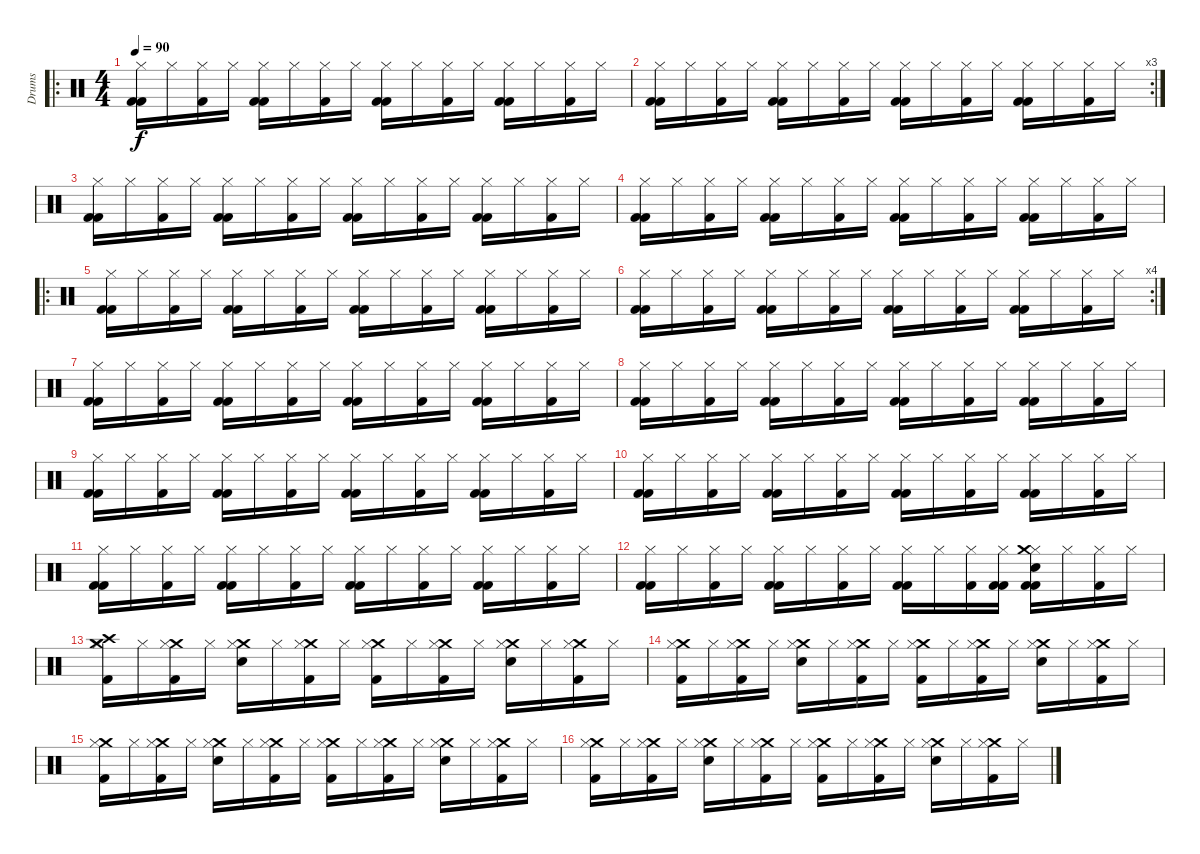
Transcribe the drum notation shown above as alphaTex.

\track ("Drums" "Drums") {instrument percussion}
\staff {score}
\articulation defaults
\ro
\ts (4 4)
\tempo 90
\clef neutral
\ks c
("Kick (hit) 2" "Kick (hit) 2" "Hi-Hat (closed)").16{dy f} "Hi-Hat (closed)".16 ("Kick (hit) 2" "Hi-Hat (closed)").16 "Hi-Hat (closed)".16 ("Kick (hit) 2" "Kick (hit) 2" "Hi-Hat (closed)").16 "Hi-Hat (closed)".16 ("Kick (hit) 2" "Hi-Hat (closed)").16 "Hi-Hat (closed)".16 ("Kick (hit) 2" "Kick (hit) 2" "Hi-Hat (closed)").16 "Hi-Hat (closed)".16 ("Kick (hit) 2" "Hi-Hat (closed)").16 "Hi-Hat (closed)".16 ("Kick (hit) 2" "Kick (hit) 2" "Hi-Hat (closed)").16 "Hi-Hat (closed)".16 ("Kick (hit) 2" "Hi-Hat (closed)").16 "Hi-Hat (closed)".16 |
\rc 3
("Kick (hit) 2" "Kick (hit) 2" "Hi-Hat (closed)").16 "Hi-Hat (closed)".16 ("Kick (hit) 2" "Hi-Hat (closed)").16 "Hi-Hat (closed)".16 ("Kick (hit) 2" "Kick (hit) 2" "Hi-Hat (closed)").16 "Hi-Hat (closed)".16 ("Kick (hit) 2" "Hi-Hat (closed)").16 "Hi-Hat (closed)".16 ("Kick (hit) 2" "Kick (hit) 2" "Hi-Hat (closed)").16 "Hi-Hat (closed)".16 ("Kick (hit) 2" "Hi-Hat (closed)").16 "Hi-Hat (closed)".16 ("Kick (hit) 2" "Kick (hit) 2" "Hi-Hat (closed)").16 "Hi-Hat (closed)".16 ("Kick (hit) 2" "Hi-Hat (closed)").16 "Hi-Hat (closed)".16 |
("Kick (hit) 2" "Kick (hit) 2" "Hi-Hat (closed)").16 "Hi-Hat (closed)".16 ("Kick (hit) 2" "Hi-Hat (closed)").16 "Hi-Hat (closed)".16 ("Kick (hit) 2" "Kick (hit) 2" "Hi-Hat (closed)").16 "Hi-Hat (closed)".16 ("Kick (hit) 2" "Hi-Hat (closed)").16 "Hi-Hat (closed)".16 ("Kick (hit) 2" "Kick (hit) 2" "Hi-Hat (closed)").16 "Hi-Hat (closed)".16 ("Kick (hit) 2" "Hi-Hat (closed)").16 "Hi-Hat (closed)".16 ("Kick (hit) 2" "Kick (hit) 2" "Hi-Hat (closed)").16 "Hi-Hat (closed)".16 ("Kick (hit) 2" "Hi-Hat (closed)").16 "Hi-Hat (closed)".16 |
("Kick (hit) 2" "Kick (hit) 2" "Hi-Hat (closed)").16 "Hi-Hat (closed)".16 ("Kick (hit) 2" "Hi-Hat (closed)").16 "Hi-Hat (closed)".16 ("Kick (hit) 2" "Kick (hit) 2" "Hi-Hat (closed)").16 "Hi-Hat (closed)".16 ("Kick (hit) 2" "Hi-Hat (closed)").16 "Hi-Hat (closed)".16 ("Kick (hit) 2" "Kick (hit) 2" "Hi-Hat (closed)").16 "Hi-Hat (closed)".16 ("Kick (hit) 2" "Hi-Hat (closed)").16 "Hi-Hat (closed)".16 ("Kick (hit) 2" "Kick (hit) 2" "Hi-Hat (closed)").16 "Hi-Hat (closed)".16 ("Kick (hit) 2" "Hi-Hat (closed)").16 "Hi-Hat (closed)".16 |
\ro
("Kick (hit) 2" "Kick (hit) 2" "Hi-Hat (closed)").16 "Hi-Hat (closed)".16 ("Kick (hit) 2" "Hi-Hat (closed)").16 "Hi-Hat (closed)".16 ("Kick (hit) 2" "Kick (hit) 2" "Hi-Hat (closed)").16 "Hi-Hat (closed)".16 ("Kick (hit) 2" "Hi-Hat (closed)").16 "Hi-Hat (closed)".16 ("Kick (hit) 2" "Kick (hit) 2" "Hi-Hat (closed)").16 "Hi-Hat (closed)".16 ("Kick (hit) 2" "Hi-Hat (closed)").16 "Hi-Hat (closed)".16 ("Kick (hit) 2" "Kick (hit) 2" "Hi-Hat (closed)").16 "Hi-Hat (closed)".16 ("Kick (hit) 2" "Hi-Hat (closed)").16 "Hi-Hat (closed)".16 |
\rc 4
("Kick (hit) 2" "Kick (hit) 2" "Hi-Hat (closed)").16 "Hi-Hat (closed)".16 ("Kick (hit) 2" "Hi-Hat (closed)").16 "Hi-Hat (closed)".16 ("Kick (hit) 2" "Kick (hit) 2" "Hi-Hat (closed)").16 "Hi-Hat (closed)".16 ("Kick (hit) 2" "Hi-Hat (closed)").16 "Hi-Hat (closed)".16 ("Kick (hit) 2" "Kick (hit) 2" "Hi-Hat (closed)").16 "Hi-Hat (closed)".16 ("Kick (hit) 2" "Hi-Hat (closed)").16 "Hi-Hat (closed)".16 ("Kick (hit) 2" "Kick (hit) 2" "Hi-Hat (closed)").16 "Hi-Hat (closed)".16 ("Kick (hit) 2" "Hi-Hat (closed)").16 "Hi-Hat (closed)".16 |
("Kick (hit) 2" "Kick (hit) 2" "Hi-Hat (closed)").16 "Hi-Hat (closed)".16 ("Kick (hit) 2" "Hi-Hat (closed)").16 "Hi-Hat (closed)".16 ("Kick (hit) 2" "Kick (hit) 2" "Hi-Hat (closed)").16 "Hi-Hat (closed)".16 ("Kick (hit) 2" "Hi-Hat (closed)").16 "Hi-Hat (closed)".16 ("Kick (hit) 2" "Kick (hit) 2" "Hi-Hat (closed)").16 "Hi-Hat (closed)".16 ("Kick (hit) 2" "Hi-Hat (closed)").16 "Hi-Hat (closed)".16 ("Kick (hit) 2" "Kick (hit) 2" "Hi-Hat (closed)").16 "Hi-Hat (closed)".16 ("Kick (hit) 2" "Hi-Hat (closed)").16 "Hi-Hat (closed)".16 |
("Kick (hit) 2" "Kick (hit) 2" "Hi-Hat (closed)").16 "Hi-Hat (closed)".16 ("Kick (hit) 2" "Hi-Hat (closed)").16 "Hi-Hat (closed)".16 ("Kick (hit) 2" "Kick (hit) 2" "Hi-Hat (closed)").16 "Hi-Hat (closed)".16 ("Kick (hit) 2" "Hi-Hat (closed)").16 "Hi-Hat (closed)".16 ("Kick (hit) 2" "Kick (hit) 2" "Hi-Hat (closed)").16 "Hi-Hat (closed)".16 ("Kick (hit) 2" "Hi-Hat (closed)").16 "Hi-Hat (closed)".16 ("Kick (hit) 2" "Kick (hit) 2" "Hi-Hat (closed)").16 "Hi-Hat (closed)".16 ("Kick (hit) 2" "Hi-Hat (closed)").16 "Hi-Hat (closed)".16 |
("Kick (hit) 2" "Kick (hit) 2" "Hi-Hat (closed)").16 "Hi-Hat (closed)".16 ("Kick (hit) 2" "Hi-Hat (closed)").16 "Hi-Hat (closed)".16 ("Kick (hit) 2" "Kick (hit) 2" "Hi-Hat (closed)").16 "Hi-Hat (closed)".16 ("Kick (hit) 2" "Hi-Hat (closed)").16 "Hi-Hat (closed)".16 ("Kick (hit) 2" "Kick (hit) 2" "Hi-Hat (closed)").16 "Hi-Hat (closed)".16 ("Kick (hit) 2" "Hi-Hat (closed)").16 "Hi-Hat (closed)".16 ("Kick (hit) 2" "Kick (hit) 2" "Hi-Hat (closed)").16 "Hi-Hat (closed)".16 ("Kick (hit) 2" "Hi-Hat (closed)").16 "Hi-Hat (closed)".16 |
("Hi-Hat (closed)" "Kick (hit) 2" "Kick (hit) 2").16 "Hi-Hat (closed)".16 ("Hi-Hat (closed)" "Kick (hit) 2").16 "Hi-Hat (closed)".16 ("Hi-Hat (closed)" "Kick (hit) 2" "Kick (hit) 2").16 "Hi-Hat (closed)".16 ("Hi-Hat (closed)" "Kick (hit) 2").16 "Hi-Hat (closed)".16 ("Hi-Hat (closed)" "Kick (hit) 2" "Kick (hit) 2").16 "Hi-Hat (closed)".16 ("Hi-Hat (closed)" "Kick (hit) 2").16 "Hi-Hat (closed)".16 ("Hi-Hat (closed)" "Kick (hit) 2" "Kick (hit) 2").16 "Hi-Hat (closed)".16 ("Hi-Hat (closed)" "Kick (hit) 2").16 "Hi-Hat (closed)".16 |
("Kick (hit) 2" "Kick (hit) 2" "Hi-Hat (closed)").16 "Hi-Hat (closed)".16 ("Kick (hit) 2" "Hi-Hat (closed)").16 "Hi-Hat (closed)".16 ("Kick (hit) 2" "Kick (hit) 2" "Hi-Hat (closed)").16 "Hi-Hat (closed)".16 ("Kick (hit) 2" "Hi-Hat (closed)").16 "Hi-Hat (closed)".16 ("Kick (hit) 2" "Kick (hit) 2" "Hi-Hat (closed)").16 "Hi-Hat (closed)".16 ("Kick (hit) 2" "Hi-Hat (closed)").16 "Hi-Hat (closed)".16 ("Kick (hit) 2" "Kick (hit) 2" "Hi-Hat (closed)").16 "Hi-Hat (closed)".16 ("Kick (hit) 2" "Hi-Hat (closed)").16 "Hi-Hat (closed)".16 |
("Kick (hit) 2" "Kick (hit) 2" "Hi-Hat (closed)").16 "Hi-Hat (closed)".16 ("Hi-Hat (closed)" "Kick (hit) 2").16 "Hi-Hat (closed)".16 ("Kick (hit) 2" "Kick (hit) 2" "Hi-Hat (closed)").16 "Hi-Hat (closed)".16 ("Kick (hit) 2" "Hi-Hat (closed)").16 "Hi-Hat (closed)".16 ("Kick (hit) 2" "Kick (hit) 2" "Hi-Hat (closed)").16 "Hi-Hat (closed)".16 ("Kick (hit) 2" "Hi-Hat (closed)").16 ("Hi-Hat (closed)" "Kick (hit) 2" "Kick (hit) 2").16 ("Kick (hit) 2" "Kick (hit) 2" "Hi-Hat (closed)" "Snare (hit) 2" "Crash medium (hit)").16 "Hi-Hat (closed)".16 ("Hi-Hat (closed)" "Kick (hit) 2").16 "Hi-Hat (closed)".16 |
("Crash medium (hit)" "Kick (hit) 2" "Crash high (hit)" "Hi-Hat (closed)").16 "Hi-Hat (closed)".16 ("Crash medium (hit)" "Kick (hit) 2" "Hi-Hat (closed)").16 "Hi-Hat (closed)".16 ("Crash medium (hit)" "Snare (hit) 2" "Hi-Hat (closed)").16 "Hi-Hat (closed)".16 ("Crash medium (hit)" "Kick (hit) 2" "Hi-Hat (closed)").16 "Hi-Hat (closed)".16 ("Crash medium (hit)" "Kick (hit) 2" "Hi-Hat (closed)").16 "Hi-Hat (closed)".16 ("Crash medium (hit)" "Kick (hit) 2" "Hi-Hat (closed)").16 "Hi-Hat (closed)".16 ("Crash medium (hit)" "Snare (hit) 2" "Hi-Hat (closed)").16 "Hi-Hat (closed)".16 ("Crash medium (hit)" "Kick (hit) 2" "Hi-Hat (closed)").16 "Hi-Hat (closed)".16 |
("Crash medium (hit)" "Kick (hit) 2" "Hi-Hat (closed)").16 "Hi-Hat (closed)".16 ("Crash medium (hit)" "Kick (hit) 2" "Hi-Hat (closed)").16 "Hi-Hat (closed)".16 ("Crash medium (hit)" "Snare (hit) 2" "Hi-Hat (closed)").16 "Hi-Hat (closed)".16 ("Crash medium (hit)" "Kick (hit) 2" "Hi-Hat (closed)").16 "Hi-Hat (closed)".16 ("Crash medium (hit)" "Kick (hit) 2" "Hi-Hat (closed)").16 "Hi-Hat (closed)".16 ("Crash medium (hit)" "Kick (hit) 2" "Hi-Hat (closed)").16 "Hi-Hat (closed)".16 ("Crash medium (hit)" "Snare (hit) 2" "Hi-Hat (closed)").16 "Hi-Hat (closed)".16 ("Crash medium (hit)" "Kick (hit) 2" "Hi-Hat (closed)").16 "Hi-Hat (closed)".16 |
("Crash medium (hit)" "Kick (hit) 2" "Hi-Hat (closed)").16 "Hi-Hat (closed)".16 ("Crash medium (hit)" "Kick (hit) 2" "Hi-Hat (closed)").16 "Hi-Hat (closed)".16 ("Crash medium (hit)" "Snare (hit) 2" "Hi-Hat (closed)").16 "Hi-Hat (closed)".16 ("Crash medium (hit)" "Kick (hit) 2" "Hi-Hat (closed)").16 "Hi-Hat (closed)".16 ("Crash medium (hit)" "Kick (hit) 2" "Hi-Hat (closed)").16 "Hi-Hat (closed)".16 ("Crash medium (hit)" "Kick (hit) 2" "Hi-Hat (closed)").16 "Hi-Hat (closed)".16 ("Crash medium (hit)" "Snare (hit) 2" "Hi-Hat (closed)").16 "Hi-Hat (closed)".16 ("Crash medium (hit)" "Kick (hit) 2" "Hi-Hat (closed)").16 "Hi-Hat (closed)".16 |
("Crash medium (hit)" "Kick (hit) 2" "Hi-Hat (closed)").16 "Hi-Hat (closed)".16 ("Crash medium (hit)" "Kick (hit) 2" "Hi-Hat (closed)").16 "Hi-Hat (closed)".16 ("Crash medium (hit)" "Snare (hit) 2" "Hi-Hat (closed)").16 "Hi-Hat (closed)".16 ("Crash medium (hit)" "Kick (hit) 2" "Hi-Hat (closed)").16 "Hi-Hat (closed)".16 ("Crash medium (hit)" "Kick (hit) 2" "Hi-Hat (closed)").16 "Hi-Hat (closed)".16 ("Crash medium (hit)" "Kick (hit) 2" "Hi-Hat (closed)").16 "Hi-Hat (closed)".16 ("Crash medium (hit)" "Snare (hit) 2" "Hi-Hat (closed)").16 "Hi-Hat (closed)".16 ("Crash medium (hit)" "Kick (hit) 2" "Hi-Hat (closed)").16 "Hi-Hat (closed)".16
